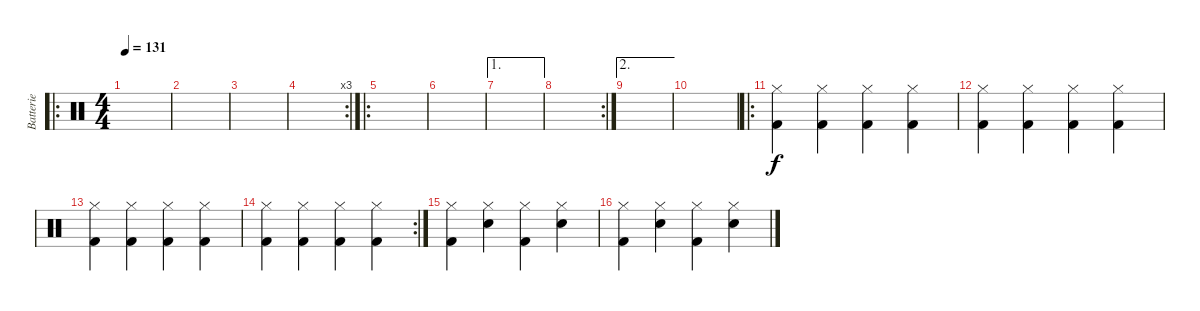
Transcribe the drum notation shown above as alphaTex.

\track ("Batterie" "Batterie") {instrument percussion}
\staff {score}
\articulation defaults
\ro
\ts (4 4)
\tempo 131
\clef neutral
\ks c
|
|
|
\rc 3
|
\ro
|
|
\ae 1
|
\rc 2
|
\ae 2
|
|
\ro
("Hi-Hat (closed)" "Kick (hit) 2").4 ("Hi-Hat (closed)" "Kick (hit) 2").4 ("Hi-Hat (closed)" "Kick (hit) 2").4 ("Hi-Hat (closed)" "Kick (hit) 2").4 |
("Hi-Hat (closed)" "Kick (hit) 2").4 ("Hi-Hat (closed)" "Kick (hit) 2").4 ("Hi-Hat (closed)" "Kick (hit) 2").4 ("Hi-Hat (closed)" "Kick (hit) 2").4 |
("Hi-Hat (closed)" "Kick (hit) 2").4 ("Hi-Hat (closed)" "Kick (hit) 2").4 ("Hi-Hat (closed)" "Kick (hit) 2").4 ("Hi-Hat (closed)" "Kick (hit) 2").4 |
\rc 2
("Hi-Hat (closed)" "Kick (hit) 2").4 ("Hi-Hat (closed)" "Kick (hit) 2").4 ("Hi-Hat (closed)" "Kick (hit) 2").4 ("Hi-Hat (closed)" "Kick (hit) 2").4 |
("Hi-Hat (closed)" "Kick (hit) 2").4 ("Hi-Hat (closed)" "Snare (hit) 2").4 ("Hi-Hat (closed)" "Kick (hit) 2").4 ("Hi-Hat (closed)" "Snare (hit) 2").4 |
("Hi-Hat (closed)" "Kick (hit) 2").4 ("Hi-Hat (closed)" "Snare (hit) 2").4 ("Hi-Hat (closed)" "Kick (hit) 2").4 ("Hi-Hat (closed)" "Snare (hit) 2").4
